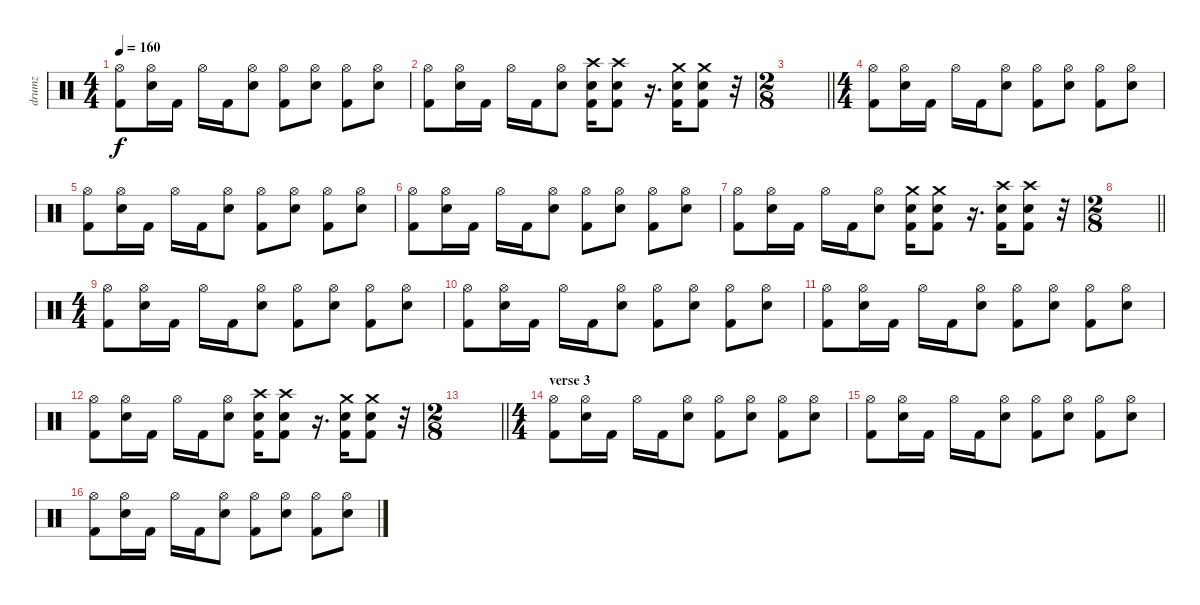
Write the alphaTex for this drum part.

\track ("drumz" "drumz") {instrument percussion}
\staff {score}
\articulation defaults
\ts (4 4)
\tempo 160
\clef neutral
\ks c
("Hi-Hat (open)" "Kick (hit) 2").8{dy f} ("Hi-Hat (open)" "Electric Snare (hit)").16 "Kick (hit) 2".16 "Hi-Hat (open)".16 "Kick (hit) 2".16 ("Hi-Hat (open)" "Electric Snare (hit)").8 ("Hi-Hat (open)" "Kick (hit) 2").8 ("Hi-Hat (open)" "Electric Snare (hit)").8 ("Hi-Hat (open)" "Kick (hit) 2").8 ("Hi-Hat (open)" "Electric Snare (hit)").8 |
("Hi-Hat (open)" "Kick (hit) 2").8 ("Hi-Hat (open)" "Electric Snare (hit)").16 "Kick (hit) 2".16 "Hi-Hat (open)".16 "Kick (hit) 2".16 ("Hi-Hat (open)" "Electric Snare (hit)").8 ("Crash high (hit)" "Electric Snare (hit)" "Kick (hit) 2").16 ("Crash high (hit)" "Electric Snare (hit)" "Kick (hit) 2").8 r.16{d} ("Crash medium (hit)" "Electric Snare (hit)" "Kick (hit) 2").16 ("Crash medium (hit)" "Electric Snare (hit)" "Kick (hit) 2").8 r.32 |
\ts (2 8)
\barLineRight lightlight
|
\ts (4 4)
("Hi-Hat (open)" "Kick (hit) 2").8 ("Hi-Hat (open)" "Electric Snare (hit)").16 "Kick (hit) 2".16 "Hi-Hat (open)".16 "Kick (hit) 2".16 ("Hi-Hat (open)" "Electric Snare (hit)").8 ("Hi-Hat (open)" "Kick (hit) 2").8 ("Hi-Hat (open)" "Electric Snare (hit)").8 ("Hi-Hat (open)" "Kick (hit) 2").8 ("Hi-Hat (open)" "Electric Snare (hit)").8 |
("Hi-Hat (open)" "Kick (hit) 2").8 ("Hi-Hat (open)" "Electric Snare (hit)").16 "Kick (hit) 2".16 "Hi-Hat (open)".16 "Kick (hit) 2".16 ("Hi-Hat (open)" "Electric Snare (hit)").8 ("Hi-Hat (open)" "Kick (hit) 2").8 ("Hi-Hat (open)" "Electric Snare (hit)").8 ("Hi-Hat (open)" "Kick (hit) 2").8 ("Hi-Hat (open)" "Electric Snare (hit)").8 |
("Hi-Hat (open)" "Kick (hit) 2").8 ("Hi-Hat (open)" "Electric Snare (hit)").16 "Kick (hit) 2".16 "Hi-Hat (open)".16 "Kick (hit) 2".16 ("Hi-Hat (open)" "Electric Snare (hit)").8 ("Hi-Hat (open)" "Kick (hit) 2").8 ("Hi-Hat (open)" "Electric Snare (hit)").8 ("Hi-Hat (open)" "Kick (hit) 2").8 ("Hi-Hat (open)" "Electric Snare (hit)").8 |
("Hi-Hat (open)" "Kick (hit) 2").8 ("Hi-Hat (open)" "Electric Snare (hit)").16 "Kick (hit) 2".16 "Hi-Hat (open)".16 "Kick (hit) 2".16 ("Hi-Hat (open)" "Electric Snare (hit)").8 ("Crash medium (hit)" "Electric Snare (hit)" "Kick (hit) 2").16 ("Crash medium (hit)" "Electric Snare (hit)" "Kick (hit) 2").8 r.16{d} ("Crash high (hit)" "Electric Snare (hit)" "Kick (hit) 2").16 ("Crash high (hit)" "Electric Snare (hit)" "Kick (hit) 2").8 r.32 |
\ts (2 8)
\barLineRight lightlight
|
\ts (4 4)
("Hi-Hat (open)" "Kick (hit) 2").8 ("Hi-Hat (open)" "Electric Snare (hit)").16 "Kick (hit) 2".16 "Hi-Hat (open)".16 "Kick (hit) 2".16 ("Hi-Hat (open)" "Electric Snare (hit)").8 ("Hi-Hat (open)" "Kick (hit) 2").8 ("Hi-Hat (open)" "Electric Snare (hit)").8 ("Hi-Hat (open)" "Kick (hit) 2").8 ("Hi-Hat (open)" "Electric Snare (hit)").8 |
("Hi-Hat (open)" "Kick (hit) 2").8 ("Hi-Hat (open)" "Electric Snare (hit)").16 "Kick (hit) 2".16 "Hi-Hat (open)".16 "Kick (hit) 2".16 ("Hi-Hat (open)" "Electric Snare (hit)").8 ("Hi-Hat (open)" "Kick (hit) 2").8 ("Hi-Hat (open)" "Electric Snare (hit)").8 ("Hi-Hat (open)" "Kick (hit) 2").8 ("Hi-Hat (open)" "Electric Snare (hit)").8 |
("Hi-Hat (open)" "Kick (hit) 2").8 ("Hi-Hat (open)" "Electric Snare (hit)").16 "Kick (hit) 2".16 "Hi-Hat (open)".16 "Kick (hit) 2".16 ("Hi-Hat (open)" "Electric Snare (hit)").8 ("Hi-Hat (open)" "Kick (hit) 2").8 ("Hi-Hat (open)" "Electric Snare (hit)").8 ("Hi-Hat (open)" "Kick (hit) 2").8 ("Hi-Hat (open)" "Electric Snare (hit)").8 |
("Hi-Hat (open)" "Kick (hit) 2").8 ("Hi-Hat (open)" "Electric Snare (hit)").16 "Kick (hit) 2".16 "Hi-Hat (open)".16 "Kick (hit) 2".16 ("Hi-Hat (open)" "Electric Snare (hit)").8 ("Crash high (hit)" "Electric Snare (hit)" "Kick (hit) 2").16 ("Crash high (hit)" "Electric Snare (hit)" "Kick (hit) 2").8 r.16{d} ("Crash medium (hit)" "Electric Snare (hit)" "Kick (hit) 2").16 ("Crash medium (hit)" "Electric Snare (hit)" "Kick (hit) 2").8 r.32 |
\ts (2 8)
\barLineRight lightlight
|
\ts (4 4)
\section ("" "verse 3")
("Hi-Hat (open)" "Kick (hit) 2").8 ("Hi-Hat (open)" "Electric Snare (hit)").16 "Kick (hit) 2".16 "Hi-Hat (open)".16 "Kick (hit) 2".16 ("Hi-Hat (open)" "Electric Snare (hit)").8 ("Hi-Hat (open)" "Kick (hit) 2").8 ("Hi-Hat (open)" "Electric Snare (hit)").8 ("Hi-Hat (open)" "Kick (hit) 2").8 ("Hi-Hat (open)" "Electric Snare (hit)").8 |
("Hi-Hat (open)" "Kick (hit) 2").8 ("Hi-Hat (open)" "Electric Snare (hit)").16 "Kick (hit) 2".16 "Hi-Hat (open)".16 "Kick (hit) 2".16 ("Hi-Hat (open)" "Electric Snare (hit)").8 ("Hi-Hat (open)" "Kick (hit) 2").8 ("Hi-Hat (open)" "Electric Snare (hit)").8 ("Hi-Hat (open)" "Kick (hit) 2").8 ("Hi-Hat (open)" "Electric Snare (hit)").8 |
("Hi-Hat (open)" "Kick (hit) 2").8 ("Hi-Hat (open)" "Electric Snare (hit)").16 "Kick (hit) 2".16 "Hi-Hat (open)".16 "Kick (hit) 2".16 ("Hi-Hat (open)" "Electric Snare (hit)").8 ("Hi-Hat (open)" "Kick (hit) 2").8 ("Hi-Hat (open)" "Electric Snare (hit)").8 ("Hi-Hat (open)" "Kick (hit) 2").8 ("Hi-Hat (open)" "Electric Snare (hit)").8
